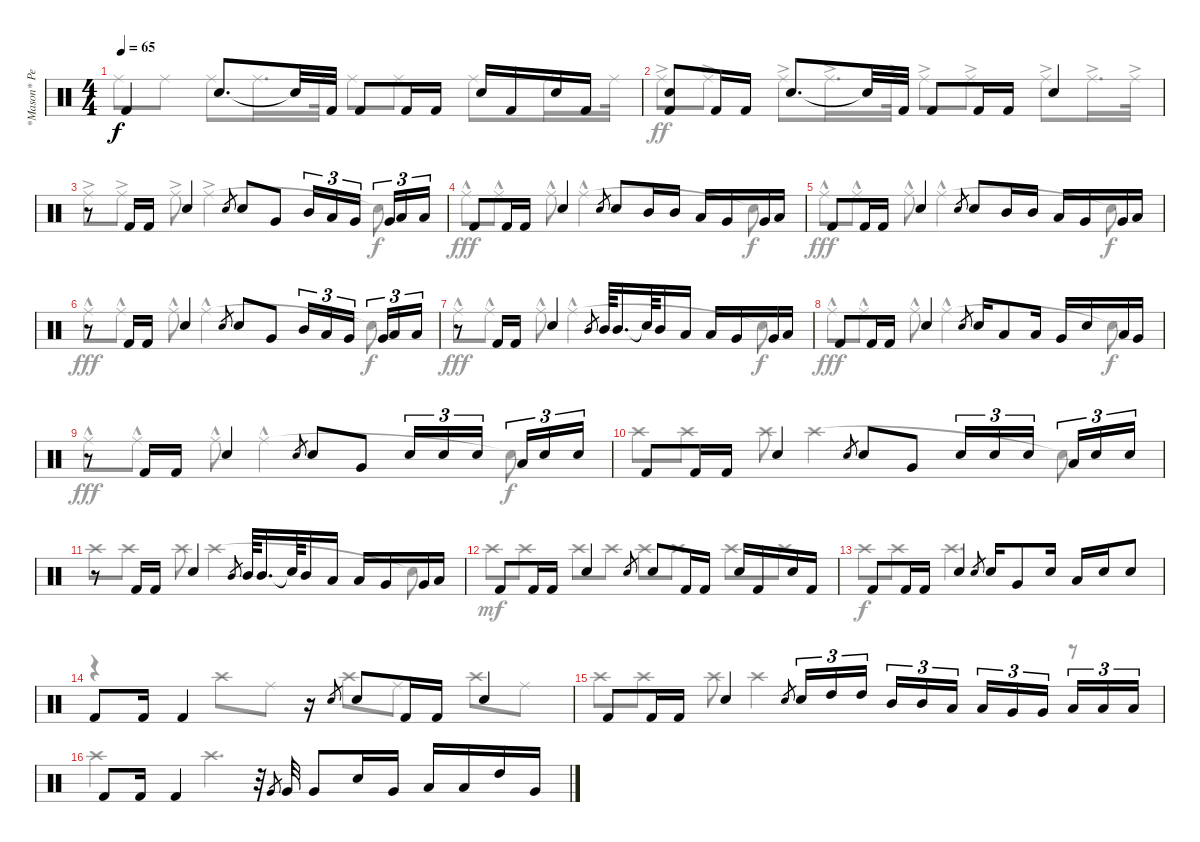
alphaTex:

\track ("*Mason* Percussion" "*Mason* Pe") {instrument percussion}
\staff {score}
\articulation defaults
\voice
\ts (4 4)
\tempo 65
\clef neutral
\ks c "Kick (hit) 2".4{dy f} "Snare (hit) 2".8{d} "Snare (hit)"{t}.32 "Kick (hit) 2".32 "Kick (hit) 2".8 "Kick (hit) 2".16 "Kick (hit) 2".16 "Snare (hit) 2".16 "Kick (hit) 2".16 "Snare (hit) 2".16 "Kick (hit) 2".16
|
("Snare (hit) 2" "Kick (hit) 2").8 "Kick (hit) 2".16 "Kick (hit) 2".16 "Snare (hit) 2".8{d} "Snare (hit)"{t}.32 "Kick (hit) 2".32 "Kick (hit) 2".8 "Kick (hit) 2".16 "Kick (hit) 2".16 "Snare (hit) 2".4 |
r.8 "Kick (hit) 2".16 "Kick (hit) 2".16 "Snare (hit) 2".4 "Snare (hit) 2".8{gr} "Snare (hit) 2".8 "Very Low Tom (hit)".8 "Mid Tom (hit)".16{tu (3 2)} "Low Tom (hit)".16{tu (3 2)} "Very Low Tom (hit)".16{tu (3 2) beam splitsecondary} "Very Low Tom (hit)".16{tu (3 2)} "Low Floor Tom (hit)".16{tu (3 2)} "Low Floor Tom (hit)".16{tu (3 2)} |
"Kick (hit) 2".8 "Kick (hit) 2".16 "Kick (hit) 2".16 "Snare (hit) 2".4 "Snare (hit) 2".8{gr} "Snare (hit) 2".8 "Mid Tom (hit)".16 "Mid Tom (hit)".16 "Low Tom (hit)".16 "Very Low Tom (hit)".16 "Very Low Tom (hit)".16 "Low Floor Tom (hit)".16 |
"Kick (hit) 2".8 "Kick (hit) 2".16 "Kick (hit) 2".16 "Snare (hit) 2".4 "Snare (hit) 2".8{gr} "Snare (hit) 2".8 "Mid Tom (hit)".16 "Mid Tom (hit)".16 "Low Tom (hit)".16 "Very Low Tom (hit)".16 "Very Low Tom (hit)".16 "Low Floor Tom (hit)".16 |
r.8 "Kick (hit) 2".16 "Kick (hit) 2".16 "Snare (hit) 2".4 "Snare (hit) 2".8{gr} "Snare (hit) 2".8 "Very Low Tom (hit)".8 "Mid Tom (hit)".16{tu (3 2)} "Low Tom (hit)".16{tu (3 2)} "Very Low Tom (hit)".16{tu (3 2) beam splitsecondary} "Very Low Tom (hit)".16{tu (3 2)} "Low Floor Tom (hit)".16{tu (3 2)} "Low Floor Tom (hit)".16{tu (3 2)} |
r.8 "Kick (hit) 2".16 "Kick (hit) 2".16 "Snare (hit) 2".4 "Mid Tom (hit)".8{gr} "Mid Tom (hit)".64 "Mid Tom (hit)".16{d} "Snare (hit)"{t}.64 "Mid Tom (hit)".16 "Low Tom (hit)".16 "Low Tom (hit)".16 "Very Low Tom (hit)".16 "Very Low Tom (hit)".16 "Low Floor Tom (hit)".16 |
"Kick (hit) 2".8 "Kick (hit) 2".16 "Kick (hit) 2".16 "Snare (hit) 2".4 "Snare (hit) 2".8{gr} "Snare (hit) 2".16 "Low Tom (hit)".8 "Low Tom (hit)".16 "Very Low Tom (hit)".16 "Snare (hit) 2".16 "Low Tom (hit)".16 "Very Low Tom (hit)".16 |
r.8 "Kick (hit) 2".16 "Kick (hit) 2".16 "Snare (hit) 2".4 "Snare (hit) 2".8{gr} "Snare (hit) 2".8 "Very Low Tom (hit)".8 "Snare (hit) 2".16{tu (3 2)} "Snare (hit) 2".16{tu (3 2)} "Snare (hit) 2".16{tu (3 2) beam splitsecondary} "Low Tom (hit)".16{tu (3 2)} "Snare (hit) 2".16{tu (3 2)} "Snare (hit) 2".16{tu (3 2)} |
"Kick (hit) 2".8 "Kick (hit) 2".16 "Kick (hit) 2".16 "Snare (hit) 2".4 "Snare (hit) 2".8{gr} "Snare (hit) 2".8 "Very Low Tom (hit)".8 "Snare (hit) 2".16{tu (3 2)} "Snare (hit) 2".16{tu (3 2)} "Snare (hit) 2".16{tu (3 2) beam splitsecondary} "Low Tom (hit)".16{tu (3 2)} "Snare (hit) 2".16{tu (3 2)} "Snare (hit) 2".16{tu (3 2)} |
r.8 "Kick (hit) 2".16 "Kick (hit) 2".16 "Snare (hit) 2".4 "Mid Tom (hit)".8{gr} "Mid Tom (hit)".64 "Mid Tom (hit)".16{d} "Snare (hit)"{t}.64 "Mid Tom (hit)".16 "Low Tom (hit)".16 "Low Tom (hit)".16 "Very Low Tom (hit)".16 "Very Low Tom (hit)".16 "Low Floor Tom (hit)".16 |
"Kick (hit) 2".8 "Kick (hit) 2".16 "Kick (hit) 2".16 "Snare (hit) 2".4 "Snare (hit) 2".8{gr} "Snare (hit) 2".8 "Kick (hit) 2".16 "Kick (hit) 2".16 "Snare (hit) 2".16 "Kick (hit) 2".16 "Snare (hit) 2".16 "Kick (hit) 2".16 |
"Kick (hit) 2".8 "Kick (hit) 2".16 "Kick (hit) 2".16 "Snare (hit) 2".4 "Snare (hit) 2".8{gr} "Snare (hit) 2".16 "Very Low Tom (hit)".8 "Snare (hit) 2".16 "Low Tom (hit)".16 "Snare (hit) 2".16 "Snare (hit) 2".8 |
"Kick (hit) 2".8 "Kick (hit) 2".16 "Kick (hit) 2".4 r.16 "Snare (hit) 2".8{gr} "Snare (hit) 2".8 "Kick (hit) 2".16 "Kick (hit) 2".16 "Snare (hit) 2".4 |
"Kick (hit) 2".8 "Kick (hit) 2".16 "Kick (hit) 2".16 "Snare (hit) 2".4 "Snare (hit) 2".8{gr} "Snare (hit) 2".16{tu (3 2)} "High Tom (hit)".16{tu (3 2)} "High Tom (hit)".16{tu (3 2) beam splitsecondary} "Mid Tom (hit)".16{tu (3 2)} "Mid Tom (hit)".16{tu (3 2)} "Low Tom (hit)".16{tu (3 2)} "Low Tom (hit)".16{tu (3 2)} "Very Low Tom (hit)".16{tu (3 2)} "Very Low Tom (hit)".16{tu (3 2) beam splitsecondary} "Low Floor Tom (hit)".16{tu (3 2)} "Low Floor Tom (hit)".16{tu (3 2)} "Low Floor Tom (hit)".16{tu (3 2)} |
"Kick (hit) 2".8 "Kick (hit) 2".16 "Kick (hit) 2".4 r.32 "Very Low Tom (hit)".8{gr} "Very Low Tom (hit)".32 "Very Low Tom (hit)".8 "Snare (hit) 2".16 "Very Low Tom (hit)".16 "Low Floor Tom (hit)".16 "Low Floor Tom (hit)".16 "High Tom (hit)".16 "Very Low Tom (hit)".16
\voice
\clef neutral
\ottava regular
\simile none
\ks c "Ride (middle)".8{dy f} "Ride (middle)".8 "Ride (middle)".8 "Ride (middle)".16{d} "Ride (middle)".32 "Ride (middle)".8 "Ride (middle)".8 "Ride (middle)".8 "Ride (middle)".16{d} "Ride (middle)".32
|
"Ride (middle)"{ac}.8{dy ff} "Ride (middle)"{ac}.8 "Ride (middle)"{ac}.8 "Ride (middle)"{ac}.16{d} "Ride (middle)"{ac}.32 "Ride (middle)"{ac}.8 "Ride (middle)"{ac}.8 "Ride (middle)"{ac}.8 "Ride (middle)"{ac}.16{d} "Ride (middle)"{ac}.32 |
"Ride (middle)"{ac}.8 "Ride (middle)"{ac}.8 "Ride (middle)"{ac}.8 "Ride (middle)"{ac}.2 "Snare (hit)"{t}.8{dy f} |
"Ride (middle)"{hac}.8{dy fff} "Ride (middle)"{hac}.8 "Ride (middle)"{hac}.8 "Ride (middle)"{hac}.2 "Snare (hit)"{t}.8{dy f} |
"Ride (middle)"{hac}.8{dy fff} "Ride (middle)"{hac}.8 "Ride (middle)"{hac}.8 "Ride (middle)"{hac}.2 "Snare (hit)"{t}.8{dy f} |
"Ride (middle)"{hac}.8{dy fff} "Ride (middle)"{hac}.8 "Ride (middle)"{hac}.8 "Ride (middle)"{hac}.2 "Snare (hit)"{t}.8{dy f} |
"Ride (middle)"{hac}.8{dy fff} "Ride (middle)"{hac}.8 "Ride (middle)"{hac}.8 "Ride (middle)"{hac}.2 "Snare (hit)"{t}.8{dy f} |
"Ride (middle)"{hac}.8{dy fff} "Ride (middle)"{hac}.8 "Ride (middle)"{hac}.8 "Ride (middle)"{hac}.2 "Snare (hit)"{t}.8{dy f} |
"Ride (middle)"{hac}.8{dy fff} "Ride (middle)"{hac}.8 "Ride (middle)"{hac}.8 "Ride (middle)"{hac}.2 "Snare (hit)"{t}.8{dy f} |
"Crash high (hit)".8 "Crash high (hit)".8 "Crash high (hit)".8 "Crash high (hit)".2 "Snare (hit)"{t}.8 |
"Crash high (hit)".8 "Crash high (hit)".8 "Crash high (hit)".8 "Crash high (hit)".2 "Snare (hit)"{t}.8 |
"Crash high (hit)".8{dy mf} "Crash high (hit)".8 "Crash high (hit)".8 "Crash high (hit)".8 "Crash high (hit)".8 "Crash high (hit)".8 "Crash high (hit)".8 "Crash high (hit)".8 |
"Crash high (hit)".8{dy f} "Crash high (hit)".8 "Crash high (hit)".2{d} |
r.4 "Crash high (hit)".8 "Ride (middle)".8 "Crash high (hit)".8 "Ride (middle)".8 "Crash high (hit)".8 "Ride (middle)".8 |
"Crash high (hit)".8 "Crash high (hit)".8 "Crash high (hit)".8 "Crash high (hit)".2 r.8 |
"Crash high (hit)".4 "Crash high (hit)".2{d}
